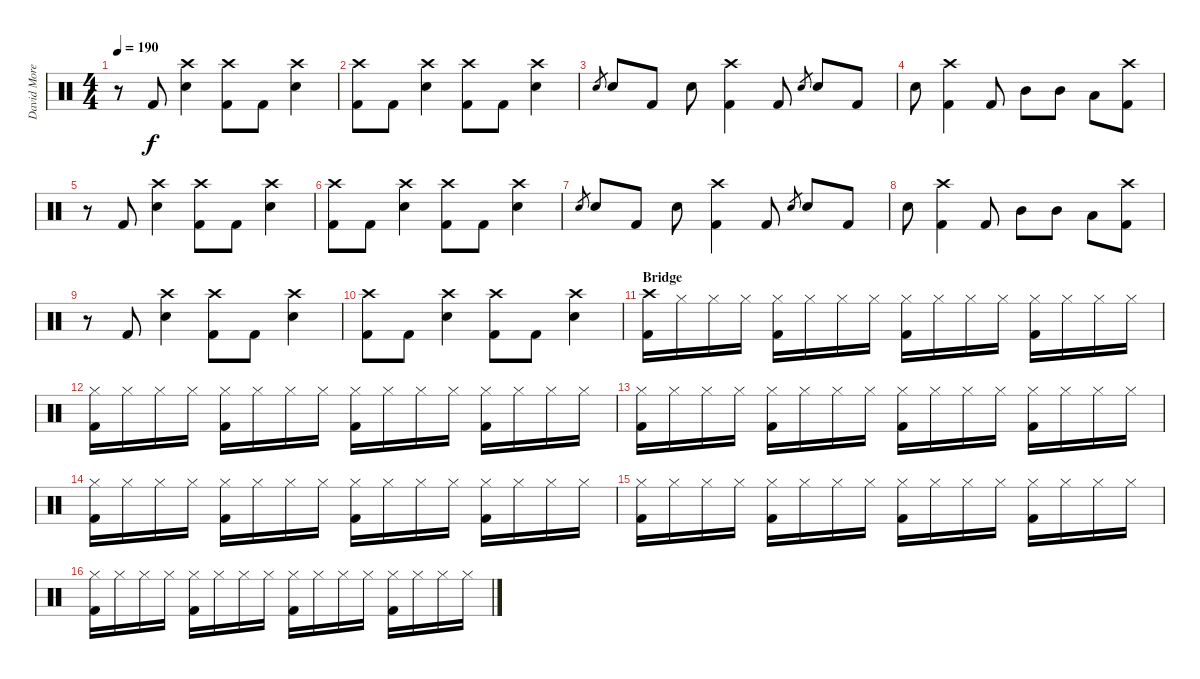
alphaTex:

\track ("David Moreno" "David More") {instrument percussion}
\staff {score}
\articulation defaults
\ts (4 4)
\tempo 190
\clef neutral
\ks c
r.8{dy f} "Kick (hit) 2".8 ("Crash high (hit)" "Snare (hit) 2").4 ("Crash high (hit)" "Kick (hit) 2").8 "Kick (hit) 2".8 ("Crash high (hit)" "Snare (hit) 2").4 |
("Crash high (hit)" "Kick (hit) 2").8 "Kick (hit) 2".8 ("Crash high (hit)" "Snare (hit) 2").4 ("Crash high (hit)" "Kick (hit) 2").8 "Kick (hit) 2".8 ("Crash high (hit)" "Snare (hit) 2").4 |
"Snare (hit) 2".8{gr} "Snare (hit) 2".8 "Kick (hit) 2".8 "Snare (hit) 2".8 ("Crash high (hit)" "Kick (hit) 2").4 "Kick (hit) 2".8 "Snare (hit) 2".8{gr} "Snare (hit) 2".8 "Kick (hit) 2".8 |
"Snare (hit) 2".8 ("Crash high (hit)" "Kick (hit) 2").4 "Kick (hit) 2".8 "Mid Tom (hit)".8 "Mid Tom (hit)".8 "Low Tom (hit)".8 ("Crash high (hit)" "Kick (hit) 2").8 |
r.8 "Kick (hit) 2".8 ("Crash high (hit)" "Snare (hit) 2").4 ("Crash high (hit)" "Kick (hit) 2").8 "Kick (hit) 2".8 ("Crash high (hit)" "Snare (hit) 2").4 |
("Crash high (hit)" "Kick (hit) 2").8 "Kick (hit) 2".8 ("Crash high (hit)" "Snare (hit) 2").4 ("Crash high (hit)" "Kick (hit) 2").8 "Kick (hit) 2".8 ("Crash high (hit)" "Snare (hit) 2").4 |
"Snare (hit) 2".8{gr} "Snare (hit) 2".8 "Kick (hit) 2".8 "Snare (hit) 2".8 ("Crash high (hit)" "Kick (hit) 2").4 "Kick (hit) 2".8 "Snare (hit) 2".8{gr} "Snare (hit) 2".8 "Kick (hit) 2".8 |
"Snare (hit) 2".8 ("Crash high (hit)" "Kick (hit) 2").4 "Kick (hit) 2".8 "Mid Tom (hit)".8 "Mid Tom (hit)".8 "Low Tom (hit)".8 ("Crash high (hit)" "Kick (hit) 2").8 |
r.8 "Kick (hit) 2".8 ("Crash high (hit)" "Snare (hit) 2").4 ("Crash high (hit)" "Kick (hit) 2").8 "Kick (hit) 2".8 ("Crash high (hit)" "Snare (hit) 2").4 |
("Crash high (hit)" "Kick (hit) 2").8 "Kick (hit) 2".8 ("Crash high (hit)" "Snare (hit) 2").4 ("Crash high (hit)" "Kick (hit) 2").8 "Kick (hit) 2".8 ("Crash high (hit)" "Snare (hit) 2").4 |
\section ("" "Bridge")
("Crash high (hit)" "Kick (hit) 2").16 "Hi-Hat (closed)".16 "Hi-Hat (closed)".16 "Hi-Hat (closed)".16 ("Hi-Hat (closed)" "Kick (hit) 2").16 "Hi-Hat (closed)".16 "Hi-Hat (closed)".16 "Hi-Hat (closed)".16 ("Hi-Hat (closed)" "Kick (hit) 2").16 "Hi-Hat (closed)".16 "Hi-Hat (closed)".16 "Hi-Hat (closed)".16 ("Hi-Hat (closed)" "Kick (hit) 2").16 "Hi-Hat (closed)".16 "Hi-Hat (closed)".16 "Hi-Hat (closed)".16 |
("Hi-Hat (closed)" "Kick (hit) 2").16 "Hi-Hat (closed)".16 "Hi-Hat (closed)".16 "Hi-Hat (closed)".16 ("Hi-Hat (closed)" "Kick (hit) 2").16 "Hi-Hat (closed)".16 "Hi-Hat (closed)".16 "Hi-Hat (closed)".16 ("Hi-Hat (closed)" "Kick (hit) 2").16 "Hi-Hat (closed)".16 "Hi-Hat (closed)".16 "Hi-Hat (closed)".16 ("Hi-Hat (closed)" "Kick (hit) 2").16 "Hi-Hat (closed)".16 "Hi-Hat (closed)".16 "Hi-Hat (closed)".16 |
("Hi-Hat (closed)" "Kick (hit) 2").16 "Hi-Hat (closed)".16 "Hi-Hat (closed)".16 "Hi-Hat (closed)".16 ("Hi-Hat (closed)" "Kick (hit) 2").16 "Hi-Hat (closed)".16 "Hi-Hat (closed)".16 "Hi-Hat (closed)".16 ("Hi-Hat (closed)" "Kick (hit) 2").16 "Hi-Hat (closed)".16 "Hi-Hat (closed)".16 "Hi-Hat (closed)".16 ("Hi-Hat (closed)" "Kick (hit) 2").16 "Hi-Hat (closed)".16 "Hi-Hat (closed)".16 "Hi-Hat (closed)".16 |
("Hi-Hat (closed)" "Kick (hit) 2").16 "Hi-Hat (closed)".16 "Hi-Hat (closed)".16 "Hi-Hat (closed)".16 ("Hi-Hat (closed)" "Kick (hit) 2").16 "Hi-Hat (closed)".16 "Hi-Hat (closed)".16 "Hi-Hat (closed)".16 ("Hi-Hat (closed)" "Kick (hit) 2").16 "Hi-Hat (closed)".16 "Hi-Hat (closed)".16 "Hi-Hat (closed)".16 ("Hi-Hat (closed)" "Kick (hit) 2").16 "Hi-Hat (closed)".16 "Hi-Hat (closed)".16 "Hi-Hat (closed)".16 |
("Hi-Hat (closed)" "Kick (hit) 2").16 "Hi-Hat (closed)".16 "Hi-Hat (closed)".16 "Hi-Hat (closed)".16 ("Hi-Hat (closed)" "Kick (hit) 2").16 "Hi-Hat (closed)".16 "Hi-Hat (closed)".16 "Hi-Hat (closed)".16 ("Hi-Hat (closed)" "Kick (hit) 2").16 "Hi-Hat (closed)".16 "Hi-Hat (closed)".16 "Hi-Hat (closed)".16 ("Hi-Hat (closed)" "Kick (hit) 2").16 "Hi-Hat (closed)".16 "Hi-Hat (closed)".16 "Hi-Hat (closed)".16 |
("Hi-Hat (closed)" "Kick (hit) 2").16 "Hi-Hat (closed)".16 "Hi-Hat (closed)".16 "Hi-Hat (closed)".16 ("Hi-Hat (closed)" "Kick (hit) 2").16 "Hi-Hat (closed)".16 "Hi-Hat (closed)".16 "Hi-Hat (closed)".16 ("Hi-Hat (closed)" "Kick (hit) 2").16 "Hi-Hat (closed)".16 "Hi-Hat (closed)".16 "Hi-Hat (closed)".16 ("Hi-Hat (closed)" "Kick (hit) 2").16 "Hi-Hat (closed)".16 "Hi-Hat (closed)".16 "Hi-Hat (closed)".16
